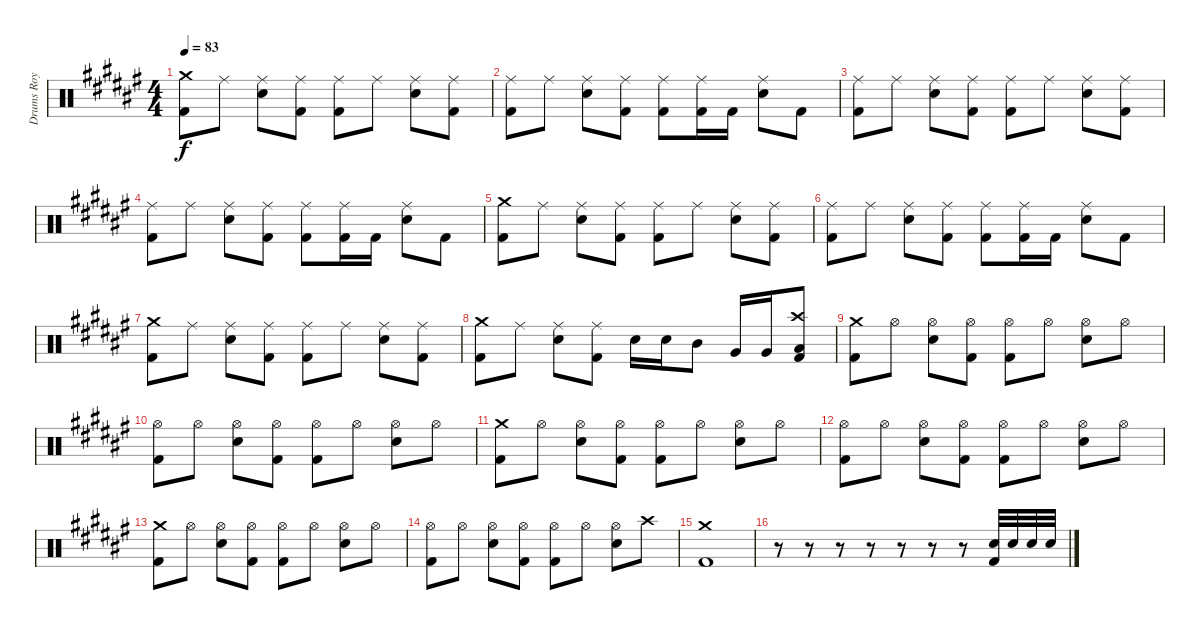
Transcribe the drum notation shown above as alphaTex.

\track ("Drums Roy" "Drums Roy") {instrument percussion}
\staff {score}
\articulation defaults
\ts (4 4)
\tempo 83
\clef neutral
\ks d#minor
("Crash medium (hit)" "Kick (hit) 2").8{dy f} "Ride (middle)".8 ("Ride (middle)" "Electric Snare (hit)").8 ("Ride (middle)" "Kick (hit) 2").8 ("Ride (middle)" "Kick (hit) 2").8 "Ride (middle)".8 ("Ride (middle)" "Electric Snare (hit)").8 ("Ride (middle)" "Kick (hit) 2").8 |
("Ride (middle)" "Kick (hit) 2").8 "Ride (middle)".8 ("Ride (middle)" "Electric Snare (hit)").8 ("Ride (middle)" "Kick (hit) 2").8 ("Ride (middle)" "Kick (hit) 2").8 ("Ride (middle)" "Kick (hit) 2").16 "Kick (hit) 2".16 ("Ride (middle)" "Electric Snare (hit)").8 "Kick (hit) 2".8 |
("Ride (middle)" "Kick (hit) 2").8 "Ride (middle)".8 ("Ride (middle)" "Electric Snare (hit)").8 ("Ride (middle)" "Kick (hit) 2").8 ("Ride (middle)" "Kick (hit) 2").8 "Ride (middle)".8 ("Ride (middle)" "Electric Snare (hit)").8 ("Ride (middle)" "Kick (hit) 2").8 |
("Ride (middle)" "Kick (hit) 2").8 "Ride (middle)".8 ("Ride (middle)" "Electric Snare (hit)").8 ("Ride (middle)" "Kick (hit) 2").8 ("Ride (middle)" "Kick (hit) 2").8 ("Ride (middle)" "Kick (hit) 2").16 "Kick (hit) 2".16 ("Ride (middle)" "Electric Snare (hit)").8 "Kick (hit) 2".8 |
("Crash medium (hit)" "Kick (hit) 2").8 "Ride (middle)".8 ("Ride (middle)" "Electric Snare (hit)").8 ("Ride (middle)" "Kick (hit) 2").8 ("Ride (middle)" "Kick (hit) 2").8 "Ride (middle)".8 ("Ride (middle)" "Electric Snare (hit)").8 ("Ride (middle)" "Kick (hit) 2").8 |
("Ride (middle)" "Kick (hit) 2").8 "Ride (middle)".8 ("Ride (middle)" "Electric Snare (hit)").8 ("Ride (middle)" "Kick (hit) 2").8 ("Ride (middle)" "Kick (hit) 2").8 ("Ride (middle)" "Kick (hit) 2").16 "Kick (hit) 2".16 ("Ride (middle)" "Electric Snare (hit)").8 "Kick (hit) 2".8 |
("Crash medium (hit)" "Kick (hit) 2").8 "Ride (middle)".8 ("Ride (middle)" "Electric Snare (hit)").8 ("Ride (middle)" "Kick (hit) 2").8 ("Ride (middle)" "Kick (hit) 2").8 "Ride (middle)".8 ("Ride (middle)" "Electric Snare (hit)").8 ("Ride (middle)" "Kick (hit) 2").8 |
("Crash medium (hit)" "Kick (hit) 2").8 "Ride (middle)".8 ("Ride (middle)" "Electric Snare (hit)").8 ("Ride (middle)" "Kick (hit) 2").8 "Electric Snare (hit)".16 "Electric Snare (hit)".16 "Mid Tom (hit)".8 "Very Low Tom (hit)".16 "Very Low Tom (hit)".16 ("Crash high (hit)" "Low Floor Tom (hit)" "Kick (hit) 2").8 |
("Crash medium (hit)" "Kick (hit) 2").8 "Hi-Hat (open)".8 ("Hi-Hat (open)" "Electric Snare (hit)").8 ("Hi-Hat (open)" "Kick (hit) 2").8 ("Hi-Hat (open)" "Kick (hit) 2").8 "Hi-Hat (open)".8 ("Hi-Hat (open)" "Electric Snare (hit)").8 "Hi-Hat (open)".8 |
("Hi-Hat (open)" "Kick (hit) 2").8 "Hi-Hat (open)".8 ("Hi-Hat (open)" "Electric Snare (hit)").8 ("Hi-Hat (open)" "Kick (hit) 2").8 ("Hi-Hat (open)" "Kick (hit) 2").8 "Hi-Hat (open)".8 ("Hi-Hat (open)" "Electric Snare (hit)").8 "Hi-Hat (open)".8 |
("Crash medium (hit)" "Kick (hit) 2").8 "Hi-Hat (open)".8 ("Hi-Hat (open)" "Electric Snare (hit)").8 ("Hi-Hat (open)" "Kick (hit) 2").8 ("Hi-Hat (open)" "Kick (hit) 2").8 "Hi-Hat (open)".8 ("Hi-Hat (open)" "Electric Snare (hit)").8 "Hi-Hat (open)".8 |
("Hi-Hat (open)" "Kick (hit) 2").8 "Hi-Hat (open)".8 ("Hi-Hat (open)" "Electric Snare (hit)").8 ("Hi-Hat (open)" "Kick (hit) 2").8 ("Hi-Hat (open)" "Kick (hit) 2").8 "Hi-Hat (open)".8 ("Hi-Hat (open)" "Electric Snare (hit)").8 "Hi-Hat (open)".8 |
("Crash medium (hit)" "Kick (hit) 2").8 "Hi-Hat (open)".8 ("Hi-Hat (open)" "Electric Snare (hit)").8 ("Hi-Hat (open)" "Kick (hit) 2").8 ("Hi-Hat (open)" "Kick (hit) 2").8 "Hi-Hat (open)".8 ("Hi-Hat (open)" "Electric Snare (hit)").8 "Hi-Hat (open)".8 |
("Hi-Hat (open)" "Kick (hit) 2").8 "Hi-Hat (open)".8 ("Hi-Hat (open)" "Electric Snare (hit)").8 ("Hi-Hat (open)" "Kick (hit) 2").8 ("Hi-Hat (open)" "Kick (hit) 2").8 "Hi-Hat (open)".8 ("Hi-Hat (open)" "Electric Snare (hit)").8 "Crash high (hit)".8 |
("Crash medium (hit)" "Kick (hit) 2").1 |
r.8 r.8 r.8 r.8 r.8 r.8 r.8 ("Electric Snare (hit)" "Kick (hit) 2").32 "Electric Snare (hit)".32 "Electric Snare (hit)".32 "Electric Snare (hit)".32
